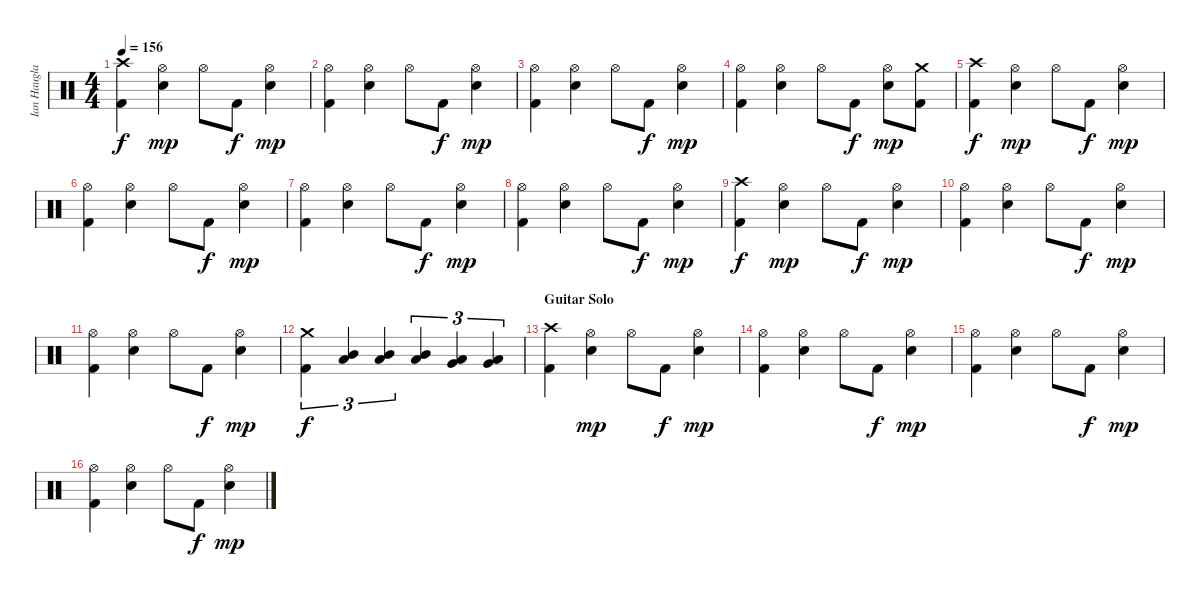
\track ("Ian Haugland" "Ian Haugla") {instrument percussion}
\staff {score}
\articulation defaults
\ts (4 4)
\tempo 156
\clef neutral
\ks c
("Kick (hit) 2" "Crash high (hit)").4{dy f} ("Hi-Hat (open)" "Snare (hit) 2").4{dy mp} "Hi-Hat (open)".8 "Kick (hit) 2".8{dy f} ("Hi-Hat (open)" "Snare (hit) 2").4{dy mp} |
("Kick (hit) 2" "Hi-Hat (open)").4 ("Hi-Hat (open)" "Snare (hit) 2").4 "Hi-Hat (open)".8 "Kick (hit) 2".8{dy f} ("Hi-Hat (open)" "Snare (hit) 2").4{dy mp} |
("Kick (hit) 2" "Hi-Hat (open)").4 ("Hi-Hat (open)" "Snare (hit) 2").4 "Hi-Hat (open)".8 "Kick (hit) 2".8{dy f} ("Hi-Hat (open)" "Snare (hit) 2").4{dy mp} |
("Kick (hit) 2" "Hi-Hat (open)").4 ("Hi-Hat (open)" "Snare (hit) 2").4 "Hi-Hat (open)".8 "Kick (hit) 2".8{dy f} ("Hi-Hat (open)" "Snare (hit) 2").8{dy mp} ("Kick (hit) 2" "Crash medium (hit)").8 |
("Kick (hit) 2" "Crash high (hit)").4{dy f} ("Hi-Hat (open)" "Snare (hit) 2").4{dy mp} "Hi-Hat (open)".8 "Kick (hit) 2".8{dy f} ("Hi-Hat (open)" "Snare (hit) 2").4{dy mp} |
("Kick (hit) 2" "Hi-Hat (open)").4 ("Hi-Hat (open)" "Snare (hit) 2").4 "Hi-Hat (open)".8 "Kick (hit) 2".8{dy f} ("Hi-Hat (open)" "Snare (hit) 2").4{dy mp} |
("Kick (hit) 2" "Hi-Hat (open)").4 ("Hi-Hat (open)" "Snare (hit) 2").4 "Hi-Hat (open)".8 "Kick (hit) 2".8{dy f} ("Hi-Hat (open)" "Snare (hit) 2").4{dy mp} |
("Kick (hit) 2" "Hi-Hat (open)").4 ("Hi-Hat (open)" "Snare (hit) 2").4 "Hi-Hat (open)".8 "Kick (hit) 2".8{dy f} ("Hi-Hat (open)" "Snare (hit) 2").4{dy mp} |
("Kick (hit) 2" "Crash high (hit)").4{dy f} ("Hi-Hat (open)" "Snare (hit) 2").4{dy mp} "Hi-Hat (open)".8 "Kick (hit) 2".8{dy f} ("Hi-Hat (open)" "Snare (hit) 2").4{dy mp} |
("Kick (hit) 2" "Hi-Hat (open)").4 ("Hi-Hat (open)" "Snare (hit) 2").4 "Hi-Hat (open)".8 "Kick (hit) 2".8{dy f} ("Hi-Hat (open)" "Snare (hit) 2").4{dy mp} |
("Kick (hit) 2" "Hi-Hat (open)").4 ("Hi-Hat (open)" "Snare (hit) 2").4 "Hi-Hat (open)".8 "Kick (hit) 2".8{dy f} ("Hi-Hat (open)" "Snare (hit) 2").4{dy mp} |
("Kick (hit) 2" "Crash medium (hit)").4{tu (3 2) dy f} ("Mid Tom (hit)" "Low Tom (hit)").4{tu (3 2)} ("Mid Tom (hit)" "Low Tom (hit)").4{tu (3 2)} ("Mid Tom (hit)" "Low Tom (hit)").4{tu (3 2)} ("Low Tom (hit)" "Very Low Tom (hit)").4{tu (3 2)} ("Very Low Tom (hit)" "Low Floor Tom (hit)").4{tu (3 2)} |
\section ("" "Guitar Solo")
("Kick (hit) 2" "Crash high (hit)").4 ("Hi-Hat (open)" "Snare (hit) 2").4{dy mp} "Hi-Hat (open)".8 "Kick (hit) 2".8{dy f} ("Hi-Hat (open)" "Snare (hit) 2").4{dy mp} |
("Kick (hit) 2" "Hi-Hat (open)").4 ("Hi-Hat (open)" "Snare (hit) 2").4 "Hi-Hat (open)".8 "Kick (hit) 2".8{dy f} ("Hi-Hat (open)" "Snare (hit) 2").4{dy mp} |
("Kick (hit) 2" "Hi-Hat (open)").4 ("Hi-Hat (open)" "Snare (hit) 2").4 "Hi-Hat (open)".8 "Kick (hit) 2".8{dy f} ("Hi-Hat (open)" "Snare (hit) 2").4{dy mp} |
("Kick (hit) 2" "Hi-Hat (open)").4 ("Hi-Hat (open)" "Snare (hit) 2").4 "Hi-Hat (open)".8 "Kick (hit) 2".8{dy f} ("Hi-Hat (open)" "Snare (hit) 2").4{dy mp}
